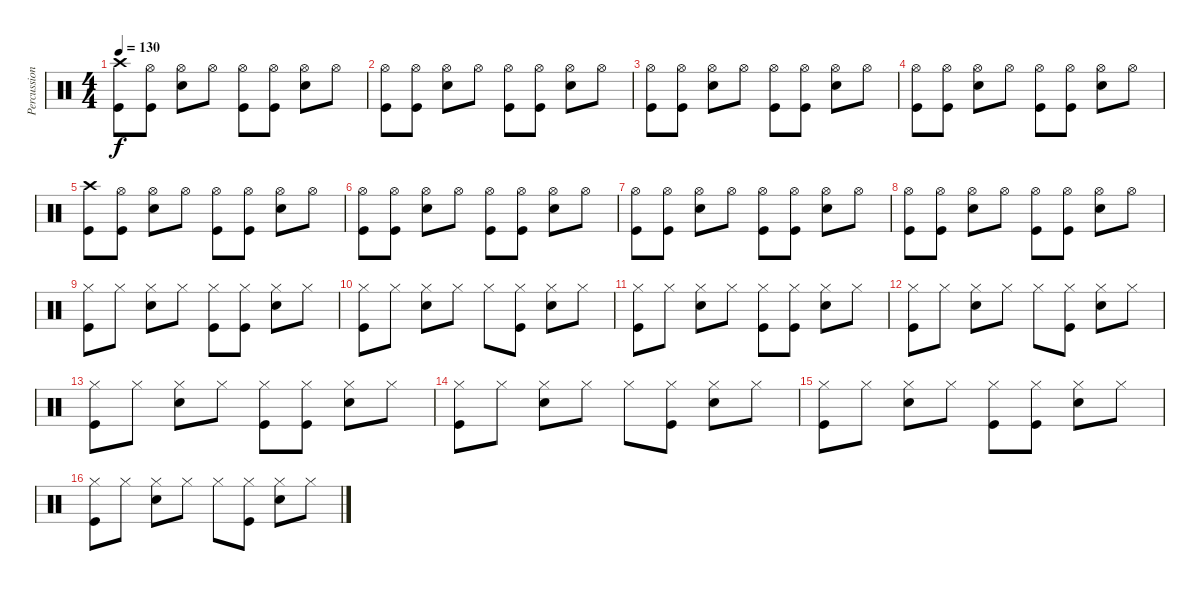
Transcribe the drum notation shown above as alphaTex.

\track ("Percussion" "Percussion") {instrument percussion}
\staff {score}
\articulation defaults
\ts (4 4)
\tempo 130
\clef neutral
\ks c
("Crash high (hit)" "Kick (hit)").8{dy f} ("Hi-Hat (open)" "Kick (hit)").8 ("Hi-Hat (open)" "Electric Snare (hit)").8 "Hi-Hat (open)".8 ("Hi-Hat (open)" "Kick (hit)").8 ("Hi-Hat (open)" "Kick (hit)").8 ("Hi-Hat (open)" "Electric Snare (hit)").8 "Hi-Hat (open)".8 |
("Hi-Hat (open)" "Kick (hit)").8 ("Hi-Hat (open)" "Kick (hit)").8 ("Hi-Hat (open)" "Electric Snare (hit)").8 "Hi-Hat (open)".8 ("Hi-Hat (open)" "Kick (hit)").8 ("Hi-Hat (open)" "Kick (hit)").8 ("Hi-Hat (open)" "Electric Snare (hit)").8 "Hi-Hat (open)".8 |
("Hi-Hat (open)" "Kick (hit)").8 ("Hi-Hat (open)" "Kick (hit)").8 ("Hi-Hat (open)" "Electric Snare (hit)").8 "Hi-Hat (open)".8 ("Hi-Hat (open)" "Kick (hit)").8 ("Hi-Hat (open)" "Kick (hit)").8 ("Hi-Hat (open)" "Electric Snare (hit)").8 "Hi-Hat (open)".8 |
("Hi-Hat (open)" "Kick (hit)").8 ("Hi-Hat (open)" "Kick (hit)").8 ("Hi-Hat (open)" "Electric Snare (hit)").8 "Hi-Hat (open)".8 ("Hi-Hat (open)" "Kick (hit)").8 ("Hi-Hat (open)" "Kick (hit)").8 ("Hi-Hat (open)" "Electric Snare (hit)").8 "Hi-Hat (open)".8 |
("Crash high (hit)" "Kick (hit)").8 ("Hi-Hat (open)" "Kick (hit)").8 ("Hi-Hat (open)" "Electric Snare (hit)").8 "Hi-Hat (open)".8 ("Hi-Hat (open)" "Kick (hit)").8 ("Hi-Hat (open)" "Kick (hit)").8 ("Hi-Hat (open)" "Electric Snare (hit)").8 "Hi-Hat (open)".8 |
("Hi-Hat (open)" "Kick (hit)").8 ("Hi-Hat (open)" "Kick (hit)").8 ("Hi-Hat (open)" "Electric Snare (hit)").8 "Hi-Hat (open)".8 ("Hi-Hat (open)" "Kick (hit)").8 ("Hi-Hat (open)" "Kick (hit)").8 ("Hi-Hat (open)" "Electric Snare (hit)").8 "Hi-Hat (open)".8 |
("Hi-Hat (open)" "Kick (hit)").8 ("Hi-Hat (open)" "Kick (hit)").8 ("Hi-Hat (open)" "Electric Snare (hit)").8 "Hi-Hat (open)".8 ("Hi-Hat (open)" "Kick (hit)").8 ("Hi-Hat (open)" "Kick (hit)").8 ("Hi-Hat (open)" "Electric Snare (hit)").8 "Hi-Hat (open)".8 |
("Hi-Hat (open)" "Kick (hit)").8 ("Hi-Hat (open)" "Kick (hit)").8 ("Hi-Hat (open)" "Electric Snare (hit)").8 "Hi-Hat (open)".8 ("Hi-Hat (open)" "Kick (hit)").8 ("Hi-Hat (open)" "Kick (hit)").8 ("Hi-Hat (open)" "Electric Snare (hit)").8 "Hi-Hat (open)".8 |
("Hi-Hat (closed)" "Kick (hit)").8 "Hi-Hat (closed)".8 ("Hi-Hat (closed)" "Electric Snare (hit)").8 "Hi-Hat (closed)".8 ("Hi-Hat (closed)" "Kick (hit)").8 ("Hi-Hat (closed)" "Kick (hit)").8 ("Hi-Hat (closed)" "Electric Snare (hit)").8 "Hi-Hat (closed)".8 |
("Hi-Hat (closed)" "Kick (hit)").8 "Hi-Hat (closed)".8 ("Hi-Hat (closed)" "Electric Snare (hit)").8 "Hi-Hat (closed)".8 "Hi-Hat (closed)".8 ("Hi-Hat (closed)" "Kick (hit)").8 ("Hi-Hat (closed)" "Electric Snare (hit)").8 "Hi-Hat (closed)".8 |
("Hi-Hat (closed)" "Kick (hit)").8 "Hi-Hat (closed)".8 ("Hi-Hat (closed)" "Electric Snare (hit)").8 "Hi-Hat (closed)".8 ("Hi-Hat (closed)" "Kick (hit)").8 ("Hi-Hat (closed)" "Kick (hit)").8 ("Hi-Hat (closed)" "Electric Snare (hit)").8 "Hi-Hat (closed)".8 |
("Hi-Hat (closed)" "Kick (hit)").8 "Hi-Hat (closed)".8 ("Hi-Hat (closed)" "Electric Snare (hit)").8 "Hi-Hat (closed)".8 "Hi-Hat (closed)".8 ("Hi-Hat (closed)" "Kick (hit)").8 ("Hi-Hat (closed)" "Electric Snare (hit)").8 "Hi-Hat (closed)".8 |
("Hi-Hat (closed)" "Kick (hit)").8 "Hi-Hat (closed)".8 ("Hi-Hat (closed)" "Electric Snare (hit)").8 "Hi-Hat (closed)".8 ("Hi-Hat (closed)" "Kick (hit)").8 ("Hi-Hat (closed)" "Kick (hit)").8 ("Hi-Hat (closed)" "Electric Snare (hit)").8 "Hi-Hat (closed)".8 |
("Hi-Hat (closed)" "Kick (hit)").8 "Hi-Hat (closed)".8 ("Hi-Hat (closed)" "Electric Snare (hit)").8 "Hi-Hat (closed)".8 "Hi-Hat (closed)".8 ("Hi-Hat (closed)" "Kick (hit)").8 ("Hi-Hat (closed)" "Electric Snare (hit)").8 "Hi-Hat (closed)".8 |
("Hi-Hat (closed)" "Kick (hit)").8 "Hi-Hat (closed)".8 ("Hi-Hat (closed)" "Electric Snare (hit)").8 "Hi-Hat (closed)".8 ("Hi-Hat (closed)" "Kick (hit)").8 ("Hi-Hat (closed)" "Kick (hit)").8 ("Hi-Hat (closed)" "Electric Snare (hit)").8 "Hi-Hat (closed)".8 |
("Hi-Hat (closed)" "Kick (hit)").8 "Hi-Hat (closed)".8 ("Hi-Hat (closed)" "Electric Snare (hit)").8 "Hi-Hat (closed)".8 "Hi-Hat (closed)".8 ("Hi-Hat (closed)" "Kick (hit)").8 ("Hi-Hat (closed)" "Electric Snare (hit)").8 "Hi-Hat (closed)".8
